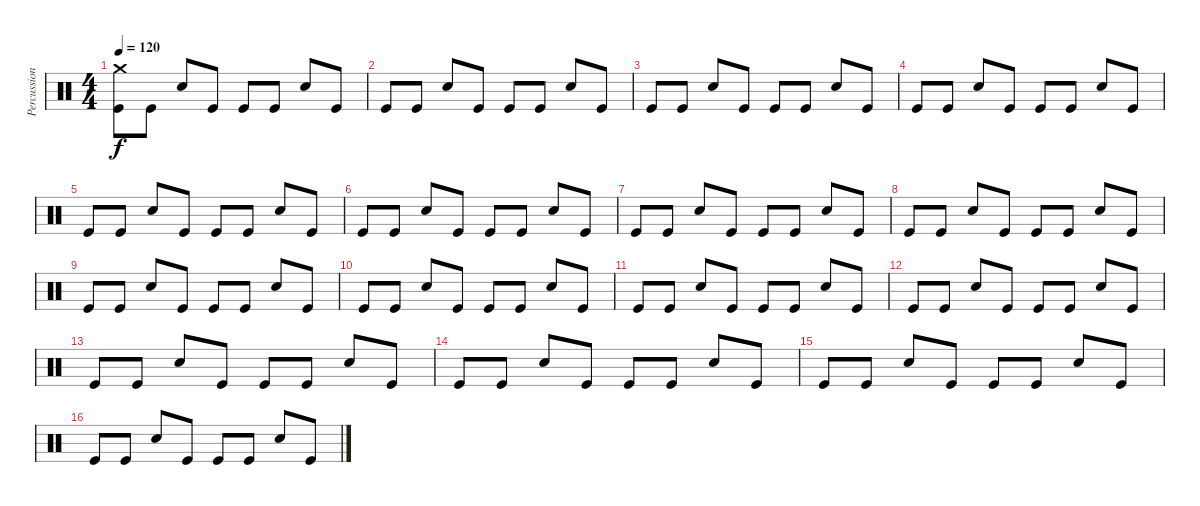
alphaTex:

\track ("Percussions" "Percussion") {instrument percussion}
\staff {score}
\articulation defaults
\ts (4 4)
\tempo 120
\clef neutral
\ks c
("Crash medium (hit)" "Kick (hit)").8{dy f} "Kick (hit)".8 "Snare (hit) 2".8 "Kick (hit)".8 "Kick (hit)".8 "Kick (hit)".8 "Snare (hit) 2".8 "Kick (hit)".8 |
"Kick (hit)".8 "Kick (hit)".8 "Snare (hit) 2".8 "Kick (hit)".8 "Kick (hit)".8 "Kick (hit)".8 "Snare (hit) 2".8 "Kick (hit)".8 |
"Kick (hit)".8 "Kick (hit)".8 "Snare (hit) 2".8 "Kick (hit)".8 "Kick (hit)".8 "Kick (hit)".8 "Snare (hit) 2".8 "Kick (hit)".8 |
"Kick (hit)".8 "Kick (hit)".8 "Snare (hit) 2".8 "Kick (hit)".8 "Kick (hit)".8 "Kick (hit)".8 "Snare (hit) 2".8 "Kick (hit)".8 |
"Kick (hit)".8 "Kick (hit)".8 "Snare (hit) 2".8 "Kick (hit)".8 "Kick (hit)".8 "Kick (hit)".8 "Snare (hit) 2".8 "Kick (hit)".8 |
"Kick (hit)".8 "Kick (hit)".8 "Snare (hit) 2".8 "Kick (hit)".8 "Kick (hit)".8 "Kick (hit)".8 "Snare (hit) 2".8 "Kick (hit)".8 |
"Kick (hit)".8 "Kick (hit)".8 "Snare (hit) 2".8 "Kick (hit)".8 "Kick (hit)".8 "Kick (hit)".8 "Snare (hit) 2".8 "Kick (hit)".8 |
"Kick (hit)".8 "Kick (hit)".8 "Snare (hit) 2".8 "Kick (hit)".8 "Kick (hit)".8 "Kick (hit)".8 "Snare (hit) 2".8 "Kick (hit)".8 |
"Kick (hit)".8 "Kick (hit)".8 "Snare (hit) 2".8 "Kick (hit)".8 "Kick (hit)".8 "Kick (hit)".8 "Snare (hit) 2".8 "Kick (hit)".8 |
"Kick (hit)".8 "Kick (hit)".8 "Snare (hit) 2".8 "Kick (hit)".8 "Kick (hit)".8 "Kick (hit)".8 "Snare (hit) 2".8 "Kick (hit)".8 |
"Kick (hit)".8 "Kick (hit)".8 "Snare (hit) 2".8 "Kick (hit)".8 "Kick (hit)".8 "Kick (hit)".8 "Snare (hit) 2".8 "Kick (hit)".8 |
"Kick (hit)".8 "Kick (hit)".8 "Snare (hit) 2".8 "Kick (hit)".8 "Kick (hit)".8 "Kick (hit)".8 "Snare (hit) 2".8 "Kick (hit)".8 |
"Kick (hit)".8 "Kick (hit)".8 "Snare (hit) 2".8 "Kick (hit)".8 "Kick (hit)".8 "Kick (hit)".8 "Snare (hit) 2".8 "Kick (hit)".8 |
"Kick (hit)".8 "Kick (hit)".8 "Snare (hit) 2".8 "Kick (hit)".8 "Kick (hit)".8 "Kick (hit)".8 "Snare (hit) 2".8 "Kick (hit)".8 |
"Kick (hit)".8 "Kick (hit)".8 "Snare (hit) 2".8 "Kick (hit)".8 "Kick (hit)".8 "Kick (hit)".8 "Snare (hit) 2".8 "Kick (hit)".8 |
"Kick (hit)".8 "Kick (hit)".8 "Snare (hit) 2".8 "Kick (hit)".8 "Kick (hit)".8 "Kick (hit)".8 "Snare (hit) 2".8 "Kick (hit)".8
